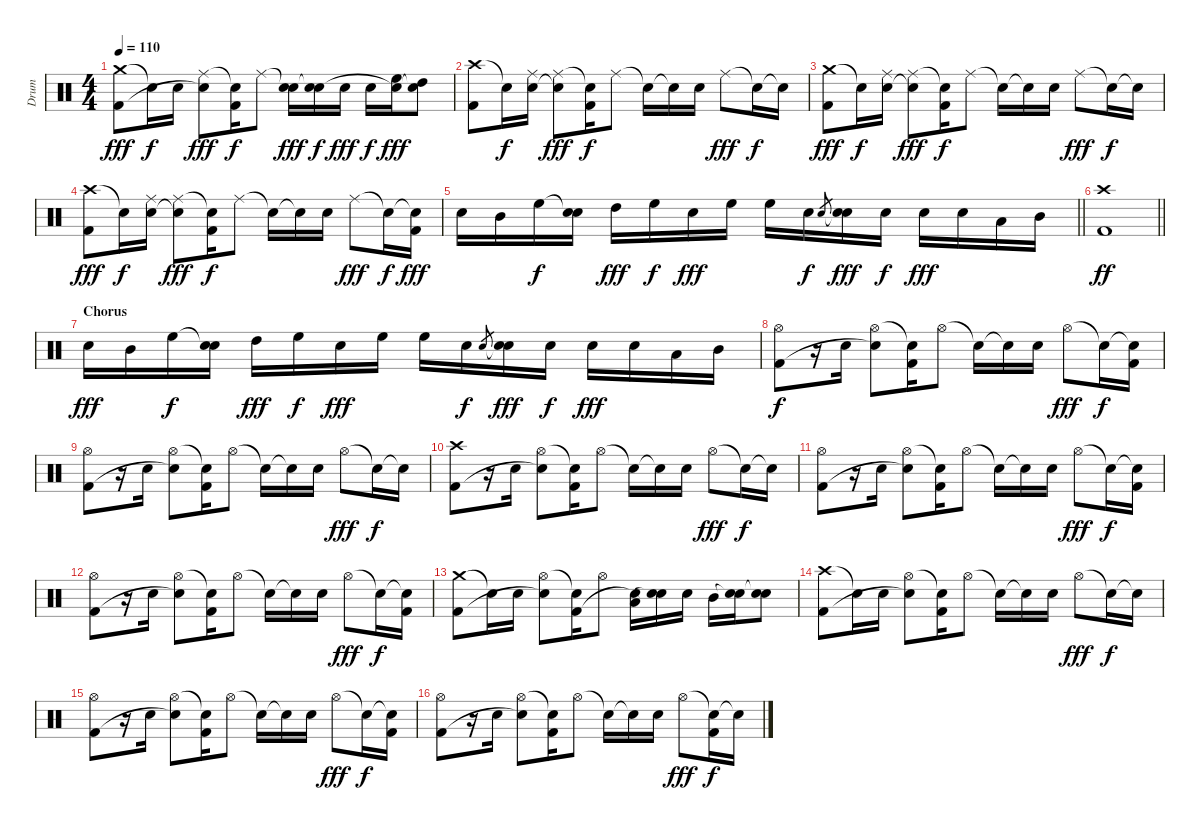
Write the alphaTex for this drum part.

\track ("Drum" "Drum") {instrument percussion}
\staff {score}
\articulation defaults
\ts (4 4)
\tempo 110
\clef neutral
\ks c
("Crash medium (hit)" "Kick (hit) 2").8{dy fff} "Snare (hit)"{t}.16{dy f} "Electric Snare (hit)".16 ("Ride (middle)" "Electric Snare (hit)"{t}).8{dy fff} ("Snare (hit)"{t} "Kick (hit) 2").16{dy f} "Ride (middle)".8 ("Snare (hit)"{t} "Electric Snare (hit)").16{dy fff} ("Snare (hit)"{t} "Electric Snare (hit)").16{dy f} "Electric Snare (hit)".16{dy fff} "Electric Snare (hit)".16{dy f} ("High Floor Tom (hit)" "Snare (hit)"{t}).16{dy fff} ("High Tom (hit)" "Snare (hit)"{t}).8 |
("Crash high (hit)" "Kick (hit) 2").8 "Snare (hit)"{t}.16{dy f} ("Ride (middle)" "Electric Snare (hit)").16 ("Ride (middle)" "Electric Snare (hit)"{t}).8{dy fff} ("Snare (hit)"{t} "Kick (hit) 2").16{dy f} "Ride (middle)".8 "Snare (hit)"{t}.16 "Snare (hit)"{t}.16 "Electric Snare (hit)".16 "Ride (middle)".8{dy fff} "Snare (hit)"{t}.16{dy f} "Snare (hit)"{t}.16 |
("Crash medium (hit)" "Kick (hit) 2").8{dy fff} "Snare (hit)"{t}.16{dy f} ("Ride (middle)" "Electric Snare (hit)").16 ("Ride (middle)" "Electric Snare (hit)"{t}).8{dy fff} ("Snare (hit)"{t} "Kick (hit) 2").16{dy f} "Ride (middle)".8 "Snare (hit)"{t}.16 "Snare (hit)"{t}.16 "Electric Snare (hit)".16 "Ride (middle)".8{dy fff} "Snare (hit)"{t}.16{dy f} "Snare (hit)"{t}.16 |
("Crash high (hit)" "Kick (hit) 2").8{dy fff} "Snare (hit)"{t}.16{dy f} ("Ride (middle)" "Electric Snare (hit)").16 ("Ride (middle)" "Electric Snare (hit)"{t}).8{dy fff} ("Snare (hit)"{t} "Kick (hit) 2").16{dy f} "Ride (middle)".8 "Snare (hit)"{t}.16 "Snare (hit)"{t}.16 "Electric Snare (hit)".16 "Ride (middle)".8{dy fff} "Snare (hit)"{t}.16{dy f} ("Snare (hit)"{t} "Kick (hit) 2").16{dy fff} |
\barLineRight lightlight "Electric Snare (hit)".16 "Mid Tom (hit)".16 "High Floor Tom (hit)".16{dy f}
("Snare (hit)"{t} "Electric Snare (hit)").16 "High Tom (hit)".16{dy fff} "High Floor Tom (hit)".16{dy f} "Electric Snare (hit)".16{dy fff} "High Floor Tom (hit)".16 "High Floor Tom (hit)".16 "Electric Snare (hit)".16{dy f} "Electric Snare (hit)".8{gr} ("Snare (hit)"{t} "Electric Snare (hit)").16{dy fff} "Electric Snare (hit)".16{dy f} "Electric Snare (hit)".16{dy fff} "Electric Snare (hit)".16 "Low Tom (hit)".16 "Mid Tom (hit)".16 |
\barLineRight lightlight
("Crash high (hit)" "Kick (hit) 2").1{dy ff} |
\section ("" "Chorus")
"Electric Snare (hit)".16{dy fff} "Mid Tom (hit)".16 "High Floor Tom (hit)".16{dy f} ("Snare (hit)"{t} "Electric Snare (hit)").16 "High Tom (hit)".16{dy fff} "High Floor Tom (hit)".16{dy f} "Electric Snare (hit)".16{dy fff} "High Floor Tom (hit)".16 "High Floor Tom (hit)".16 "Electric Snare (hit)".16{dy f} "Electric Snare (hit)".8{gr} ("Snare (hit)"{t} "Electric Snare (hit)").16{dy fff} "Electric Snare (hit)".16{dy f} "Electric Snare (hit)".16{dy fff} "Electric Snare (hit)".16 "Low Tom (hit)".16 "Mid Tom (hit)".16 |
("Hi-Hat (open)" "Kick (hit) 2").8{dy f} r.16 "Electric Snare (hit)".16 ("Hi-Hat (open)" "Electric Snare (hit)"{t}).8 ("Snare (hit)"{t} "Kick (hit) 2").16 "Hi-Hat (open)".8 "Snare (hit)"{t}.16 "Snare (hit)"{t}.16 "Electric Snare (hit)".16 "Hi-Hat (open)".8{dy fff} "Snare (hit)"{t}.16{dy f} ("Snare (hit)"{t} "Kick (hit) 2").16 |
("Hi-Hat (open)" "Kick (hit) 2").8 r.16 "Electric Snare (hit)".16 ("Hi-Hat (open)" "Electric Snare (hit)"{t}).8 ("Snare (hit)"{t} "Kick (hit) 2").16 "Hi-Hat (open)".8 "Snare (hit)"{t}.16 "Snare (hit)"{t}.16 "Electric Snare (hit)".16 "Hi-Hat (open)".8{dy fff} "Snare (hit)"{t}.16{dy f} "Snare (hit)"{t}.16 |
("Crash high (hit)" "Kick (hit) 2").8 r.16 "Electric Snare (hit)".16 ("Hi-Hat (open)" "Electric Snare (hit)"{t}).8 ("Snare (hit)"{t} "Kick (hit) 2").16 "Hi-Hat (open)".8 "Snare (hit)"{t}.16 "Snare (hit)"{t}.16 "Electric Snare (hit)".16 "Hi-Hat (open)".8{dy fff} "Snare (hit)"{t}.16{dy f} "Snare (hit)"{t}.16 |
("Hi-Hat (open)" "Kick (hit) 2").8 r.16 "Electric Snare (hit)".16 ("Hi-Hat (open)" "Electric Snare (hit)"{t}).8 ("Snare (hit)"{t} "Kick (hit) 2").16 "Hi-Hat (open)".8 "Snare (hit)"{t}.16 "Snare (hit)"{t}.16 "Electric Snare (hit)".16 "Hi-Hat (open)".8{dy fff} "Snare (hit)"{t}.16{dy f} ("Snare (hit)"{t} "Kick (hit) 2").16 |
("Hi-Hat (open)" "Kick (hit) 2").8 r.16 "Electric Snare (hit)".16 ("Hi-Hat (open)" "Electric Snare (hit)"{t}).8 ("Snare (hit)"{t} "Kick (hit) 2").16 "Hi-Hat (open)".8 "Snare (hit)"{t}.16 "Snare (hit)"{t}.16 "Electric Snare (hit)".16 "Hi-Hat (open)".8{dy fff} "Snare (hit)"{t}.16{dy f} ("Snare (hit)"{t} "Kick (hit) 2").16 |
("Crash medium (hit)" "Kick (hit) 2").8 "Snare (hit)"{t}.16 "Electric Snare (hit)".16 ("Hi-Hat (open)" "Electric Snare (hit)"{t}).8 ("Snare (hit)"{t} "Kick (hit) 2").16 "Hi-Hat (open)".8 ("Low Tom (hit)" "Snare (hit)"{t}).16 ("Snare (hit)"{t} "Electric Snare (hit)").16 "Electric Snare (hit)".16 "Mid Tom (hit)".16 ("Snare (hit)"{t} "Electric Snare (hit)").16 ("Snare (hit)"{t} "Electric Snare (hit)").8 |
("Crash high (hit)" "Kick (hit) 2").8 "Snare (hit)"{t}.16 "Electric Snare (hit)".16 ("Hi-Hat (open)" "Electric Snare (hit)"{t}).8 ("Snare (hit)"{t} "Kick (hit) 2").16 "Hi-Hat (open)".8 "Snare (hit)"{t}.16 "Snare (hit)"{t}.16 "Electric Snare (hit)".16 "Hi-Hat (open)".8{dy fff} "Snare (hit)"{t}.16{dy f} "Snare (hit)"{t}.16 |
("Hi-Hat (open)" "Kick (hit) 2").8 r.16 "Electric Snare (hit)".16 ("Hi-Hat (open)" "Electric Snare (hit)"{t}).8 ("Snare (hit)"{t} "Kick (hit) 2").16 "Hi-Hat (open)".8 "Snare (hit)"{t}.16 "Snare (hit)"{t}.16 "Electric Snare (hit)".16 "Hi-Hat (open)".8{dy fff} "Snare (hit)"{t}.16{dy f} ("Snare (hit)"{t} "Kick (hit) 2").16 |
("Hi-Hat (open)" "Kick (hit) 2").8 r.16 "Electric Snare (hit)".16 ("Hi-Hat (open)" "Electric Snare (hit)"{t}).8 ("Snare (hit)"{t} "Kick (hit) 2").16 "Hi-Hat (open)".8 "Snare (hit)"{t}.16 "Snare (hit)"{t}.16 "Electric Snare (hit)".16 "Hi-Hat (open)".8{dy fff} ("Snare (hit)"{t} "Kick (hit) 2").16{dy f} "Snare (hit)"{t}.16
